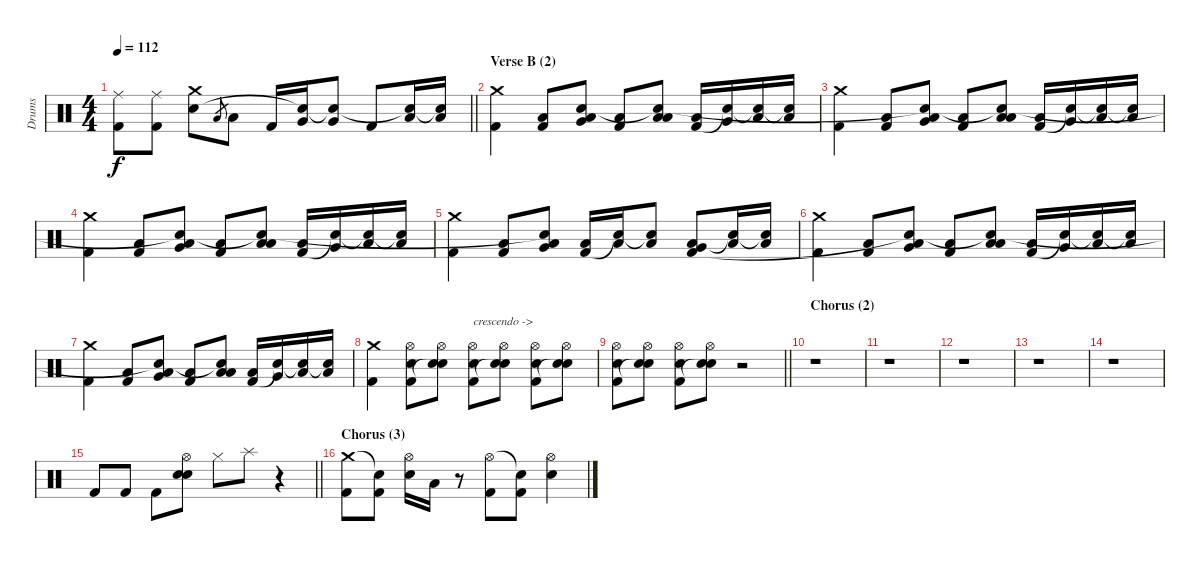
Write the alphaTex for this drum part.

\track ("Drums" "Drums") {instrument percussion}
\staff {score}
\articulation defaults
\ts (4 4)
\tempo 112
\clef neutral
\barLineRight lightlight
\ks c
("Ride (middle)" "Kick (hit) 2").8{dy f} ("Ride (middle)" "Kick (hit) 2").8 ("Crash medium (hit)" "Electric Snare (hit)").8 "Low Tom (hit)".8{gr} "Low Tom (hit)".8 "Kick (hit) 2".16 ("Very Low Tom (hit)" "Snare (hit)"{t}).16 ("Very Low Tom (hit)" "Snare (hit)"{t}).8 "Kick (hit) 2".8 ("Low Floor Tom (hit)" "Snare (hit)"{t}).16 ("Low Floor Tom (hit)" "Snare (hit)"{t}).16 |
\section ("" "Verse B (2)")
("Crash medium (hit)" "Kick (hit) 2").4 ("Low Floor Tom (hit)" "Kick (hit) 2").8 ("Very Low Tom (hit)" "Low Floor Tom (hit)" "Snare (hit)"{t}).8 ("Low Floor Tom (hit)" "Kick (hit) 2").8 ("Low Tom (hit)" "Low Floor Tom (hit)" "Snare (hit)"{t}).8 ("Low Floor Tom (hit)" "Kick (hit) 2").16 ("Very Low Tom (hit)" "Snare (hit)"{t}).16 ("Low Floor Tom (hit)" "Snare (hit)"{t}).16 ("Low Floor Tom (hit)" "Snare (hit)"{t}).16 |
("Crash medium (hit)" "Kick (hit) 2").4 ("Low Floor Tom (hit)" "Kick (hit) 2").8 ("Very Low Tom (hit)" "Low Floor Tom (hit)" "Snare (hit)"{t}).8 ("Low Floor Tom (hit)" "Kick (hit) 2").8 ("Low Tom (hit)" "Low Floor Tom (hit)" "Snare (hit)"{t}).8 ("Low Floor Tom (hit)" "Kick (hit) 2").16 ("Very Low Tom (hit)" "Snare (hit)"{t}).16 ("Low Floor Tom (hit)" "Snare (hit)"{t}).16 ("Low Floor Tom (hit)" "Snare (hit)"{t}).16 |
("Crash medium (hit)" "Kick (hit) 2").4 ("Low Floor Tom (hit)" "Kick (hit) 2").8 ("Very Low Tom (hit)" "Low Floor Tom (hit)" "Snare (hit)"{t}).8 ("Low Floor Tom (hit)" "Kick (hit) 2").8 ("Low Tom (hit)" "Low Floor Tom (hit)" "Snare (hit)"{t}).8 ("Low Floor Tom (hit)" "Kick (hit) 2").16 ("Very Low Tom (hit)" "Snare (hit)"{t}).16 ("Low Floor Tom (hit)" "Snare (hit)"{t}).16 ("Low Floor Tom (hit)" "Snare (hit)"{t}).16 |
("Crash medium (hit)" "Kick (hit) 2").4 ("Low Floor Tom (hit)" "Kick (hit) 2").8 ("Very Low Tom (hit)" "Low Floor Tom (hit)" "Snare (hit)"{t}).8 ("Low Floor Tom (hit)" "Kick (hit) 2").16 ("Low Tom (hit)" "Snare (hit)"{t}).16 ("Low Floor Tom (hit)" "Snare (hit)"{t}).8 ("Very Low Tom (hit)" "Low Floor Tom (hit)" "Kick (hit) 2").8 ("Low Floor Tom (hit)" "Snare (hit)"{t}).16 ("Low Floor Tom (hit)" "Snare (hit)"{t}).16 |
("Crash medium (hit)" "Kick (hit) 2").4 ("Low Floor Tom (hit)" "Kick (hit) 2").8 ("Very Low Tom (hit)" "Low Floor Tom (hit)" "Snare (hit)"{t}).8 ("Low Floor Tom (hit)" "Kick (hit) 2").8 ("Low Tom (hit)" "Low Floor Tom (hit)" "Snare (hit)"{t}).8 ("Low Floor Tom (hit)" "Kick (hit) 2").16 ("Very Low Tom (hit)" "Snare (hit)"{t}).16 ("Low Floor Tom (hit)" "Snare (hit)"{t}).16 ("Low Floor Tom (hit)" "Snare (hit)"{t}).16 |
("Crash medium (hit)" "Kick (hit) 2").4 ("Low Floor Tom (hit)" "Kick (hit) 2").8 ("Very Low Tom (hit)" "Low Floor Tom (hit)" "Snare (hit)"{t}).8 ("Low Floor Tom (hit)" "Kick (hit) 2").8 ("Low Tom (hit)" "Low Floor Tom (hit)" "Snare (hit)"{t}).8 ("Low Floor Tom (hit)" "Kick (hit) 2").16 ("Very Low Tom (hit)" "Snare (hit)"{t}).16 ("Low Floor Tom (hit)" "Snare (hit)"{t}).16 ("Low Floor Tom (hit)" "Snare (hit)"{t}).16 |
("Crash medium (hit)" "Kick (hit) 2").4 ("Hi-Hat (open)" "Electric Snare (hit)" "Kick (hit) 2").8 ("Hi-Hat (open)" "Electric Snare (hit)" "Snare (hit)"{t}).8 ("Hi-Hat (open)" "Electric Snare (hit)" "Kick (hit) 2").8{txt "crescendo ->"} ("Hi-Hat (open)" "Electric Snare (hit)" "Snare (hit)"{t}).8 ("Hi-Hat (open)" "Electric Snare (hit)" "Kick (hit) 2").8 ("Hi-Hat (open)" "Electric Snare (hit)" "Snare (hit)"{t}).8 |
\barLineRight lightlight
("Hi-Hat (open)" "Electric Snare (hit)" "Kick (hit) 2").8 ("Hi-Hat (open)" "Electric Snare (hit)" "Snare (hit)"{t}).8 ("Hi-Hat (open)" "Electric Snare (hit)" "Kick (hit) 2").8 ("Hi-Hat (open)" "Electric Snare (hit)" "Snare (hit)"{t}).8 r.2 |
\section ("" "Chorus (2)")
r.1 |
r.1 |
r.1 |
r.1 |
r.1 |
\barLineRight lightlight "Kick (hit) 2".8 "Kick (hit) 2".8 "Kick (hit) 2".8
("Hi-Hat (open)" "Electric Snare (hit)" "Snare (hit)").8 "Hi-Hat (closed)".8 "Splash (hit)".8 r.4 |
\section ("" "Chorus (3)")
("Crash medium (hit)" "Kick (hit) 2").8 ("Snare (hit)"{t} "Kick (hit) 2").8 ("Hi-Hat (open)" "Electric Snare (hit)").16 "Low Floor Tom (hit)".16 r.8 ("Hi-Hat (open)" "Kick (hit) 2").8 ("Snare (hit)"{t} "Kick (hit) 2").8 ("Hi-Hat (open)" "Electric Snare (hit)").4
